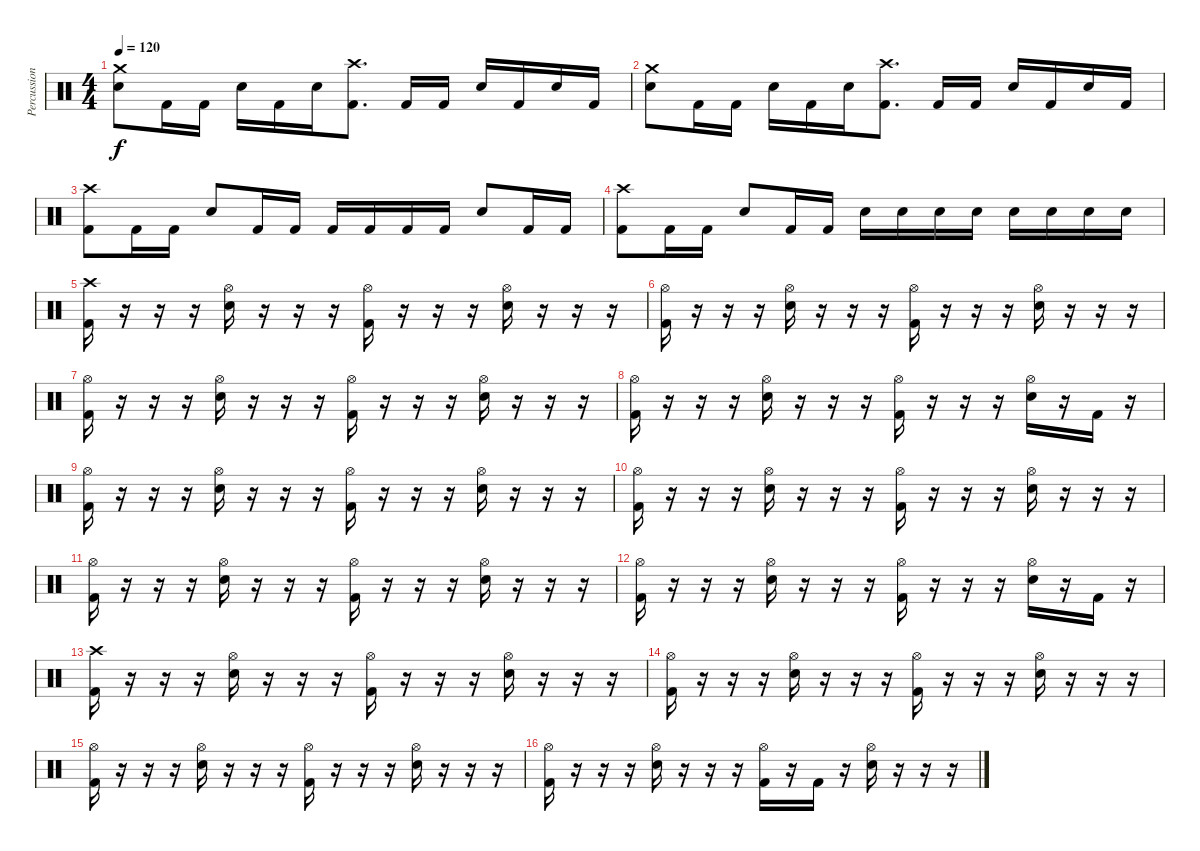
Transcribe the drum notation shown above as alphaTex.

\track ("Percussion" "Percussion") {instrument percussion}
\staff {score}
\articulation defaults
\ts (4 4)
\tempo 120
\clef neutral
\ks c
("Crash medium (hit)" "Electric Snare (hit)").8{dy f} "Kick (hit) 2".16 "Kick (hit) 2".16 "Electric Snare (hit)".16 "Kick (hit) 2".16 "Electric Snare (hit)".16 ("Crash high (hit)" "Kick (hit) 2").8{d} "Kick (hit) 2".16 "Kick (hit) 2".16 "Electric Snare (hit)".16 "Kick (hit) 2".16 "Electric Snare (hit)".16 "Kick (hit) 2".16 |
("Crash medium (hit)" "Electric Snare (hit)").8 "Kick (hit) 2".16 "Kick (hit) 2".16 "Electric Snare (hit)".16 "Kick (hit) 2".16 "Electric Snare (hit)".16 ("Crash high (hit)" "Kick (hit) 2").8{d} "Kick (hit) 2".16 "Kick (hit) 2".16 "Electric Snare (hit)".16 "Kick (hit) 2".16 "Electric Snare (hit)".16 "Kick (hit) 2".16 |
("Crash high (hit)" "Kick (hit) 2").8 "Kick (hit) 2".16 "Kick (hit) 2".16 "Electric Snare (hit)".8 "Kick (hit) 2".16 "Kick (hit) 2".16 "Kick (hit) 2".16 "Kick (hit) 2".16 "Kick (hit) 2".16 "Kick (hit) 2".16 "Electric Snare (hit)".8 "Kick (hit) 2".16 "Kick (hit) 2".16 |
("Crash high (hit)" "Kick (hit) 2").8 "Kick (hit) 2".16 "Kick (hit) 2".16 "Electric Snare (hit)".8 "Kick (hit) 2".16 "Kick (hit) 2".16 "Electric Snare (hit)".16 "Electric Snare (hit)".16 "Electric Snare (hit)".16 "Electric Snare (hit)".16 "Electric Snare (hit)".16 "Electric Snare (hit)".16 "Electric Snare (hit)".16 "Electric Snare (hit)".16 |
("Crash high (hit)" "Kick (hit) 2").16 r.16 r.16 r.16 ("Hi-Hat (open)" "Electric Snare (hit)").16 r.16 r.16 r.16 ("Hi-Hat (open)" "Kick (hit) 2").16 r.16 r.16 r.16 ("Hi-Hat (open)" "Electric Snare (hit)").16 r.16 r.16 r.16 |
("Hi-Hat (open)" "Kick (hit) 2").16 r.16 r.16 r.16 ("Hi-Hat (open)" "Electric Snare (hit)").16 r.16 r.16 r.16 ("Hi-Hat (open)" "Kick (hit) 2").16 r.16 r.16 r.16 ("Hi-Hat (open)" "Electric Snare (hit)").16 r.16 r.16 r.16 |
("Hi-Hat (open)" "Kick (hit) 2").16 r.16 r.16 r.16 ("Hi-Hat (open)" "Electric Snare (hit)").16 r.16 r.16 r.16 ("Hi-Hat (open)" "Kick (hit) 2").16 r.16 r.16 r.16 ("Hi-Hat (open)" "Electric Snare (hit)").16 r.16 r.16 r.16 |
("Hi-Hat (open)" "Kick (hit) 2").16 r.16 r.16 r.16 ("Hi-Hat (open)" "Electric Snare (hit)").16 r.16 r.16 r.16 ("Hi-Hat (open)" "Kick (hit) 2").16 r.16 r.16 r.16 ("Hi-Hat (open)" "Electric Snare (hit)").16 r.16 "Kick (hit) 2".16 r.16 |
("Hi-Hat (open)" "Kick (hit) 2").16 r.16 r.16 r.16 ("Hi-Hat (open)" "Electric Snare (hit)").16 r.16 r.16 r.16 ("Hi-Hat (open)" "Kick (hit) 2").16 r.16 r.16 r.16 ("Hi-Hat (open)" "Electric Snare (hit)").16 r.16 r.16 r.16 |
("Hi-Hat (open)" "Kick (hit) 2").16 r.16 r.16 r.16 ("Hi-Hat (open)" "Electric Snare (hit)").16 r.16 r.16 r.16 ("Hi-Hat (open)" "Kick (hit) 2").16 r.16 r.16 r.16 ("Hi-Hat (open)" "Electric Snare (hit)").16 r.16 r.16 r.16 |
("Hi-Hat (open)" "Kick (hit) 2").16 r.16 r.16 r.16 ("Hi-Hat (open)" "Electric Snare (hit)").16 r.16 r.16 r.16 ("Hi-Hat (open)" "Kick (hit) 2").16 r.16 r.16 r.16 ("Hi-Hat (open)" "Electric Snare (hit)").16 r.16 r.16 r.16 |
("Hi-Hat (open)" "Kick (hit) 2").16 r.16 r.16 r.16 ("Hi-Hat (open)" "Electric Snare (hit)").16 r.16 r.16 r.16 ("Hi-Hat (open)" "Kick (hit) 2").16 r.16 r.16 r.16 ("Hi-Hat (open)" "Electric Snare (hit)").16 r.16 "Kick (hit) 2".16 r.16 |
("Crash high (hit)" "Kick (hit) 2").16 r.16 r.16 r.16 ("Hi-Hat (open)" "Electric Snare (hit)").16 r.16 r.16 r.16 ("Hi-Hat (open)" "Kick (hit) 2").16 r.16 r.16 r.16 ("Hi-Hat (open)" "Electric Snare (hit)").16 r.16 r.16 r.16 |
("Hi-Hat (open)" "Kick (hit) 2").16 r.16 r.16 r.16 ("Hi-Hat (open)" "Electric Snare (hit)").16 r.16 r.16 r.16 ("Hi-Hat (open)" "Kick (hit) 2").16 r.16 r.16 r.16 ("Hi-Hat (open)" "Electric Snare (hit)").16 r.16 r.16 r.16 |
("Hi-Hat (open)" "Kick (hit) 2").16 r.16 r.16 r.16 ("Hi-Hat (open)" "Electric Snare (hit)").16 r.16 r.16 r.16 ("Hi-Hat (open)" "Kick (hit) 2").16 r.16 r.16 r.16 ("Hi-Hat (open)" "Electric Snare (hit)").16 r.16 r.16 r.16 |
("Hi-Hat (open)" "Kick (hit) 2").16 r.16 r.16 r.16 ("Hi-Hat (open)" "Electric Snare (hit)").16 r.16 r.16 r.16 ("Hi-Hat (open)" "Kick (hit) 2").16 r.16 "Kick (hit) 2".16 r.16 ("Hi-Hat (open)" "Electric Snare (hit)").16 r.16 r.16 r.16
